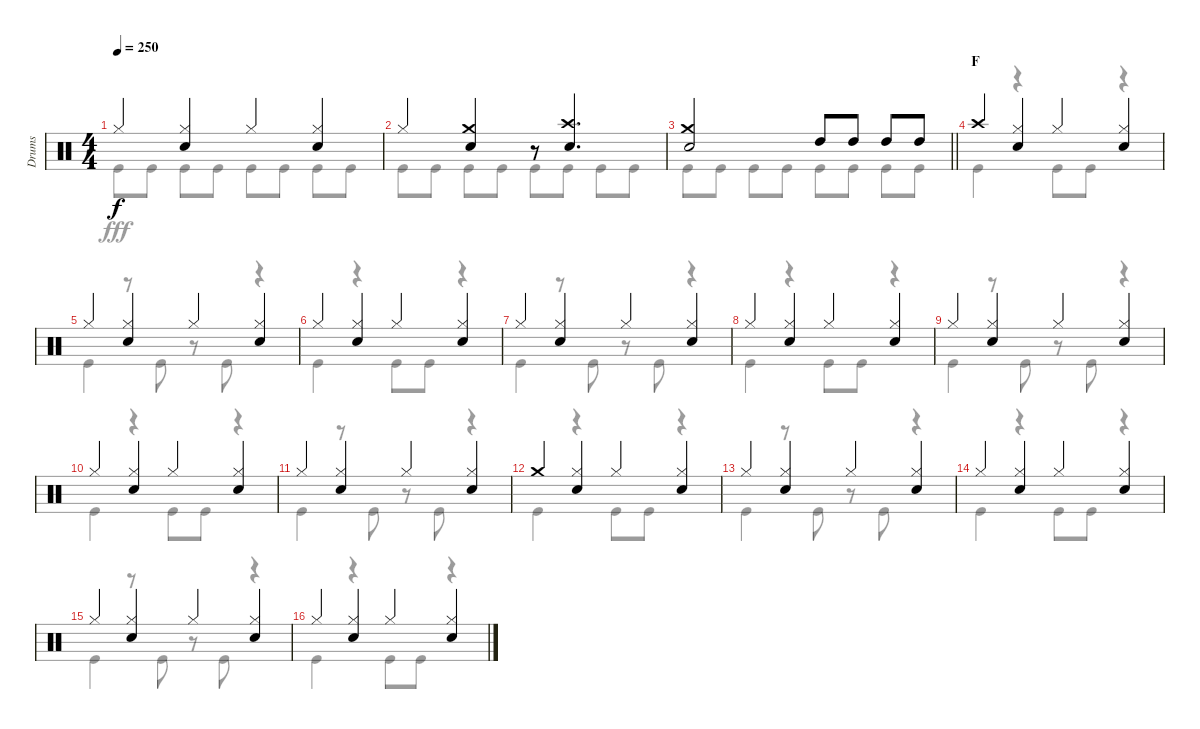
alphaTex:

\track ("Drums" "Drums") {instrument percussion}
\staff {score}
\articulation defaults
\voice
\ts (4 4)
\tempo 250
\clef neutral
\ks c "Hi-Hat (closed)".4{dy f}
("Hi-Hat (closed)" "Snare (hit) 2").4 "Hi-Hat (closed)".4 ("Hi-Hat (closed)" "Snare (hit) 2").4 |
"Hi-Hat (closed)".4 ("Crash medium (hit)" "Snare (hit) 2").4 r.8 ("Crash high (hit)" "Snare (hit) 2").4{d} |
\barLineRight lightlight
("Crash medium (hit)" "Snare (hit) 2").2 "High Tom (hit)".8 "High Tom (hit)".8 "High Tom (hit)".8 "High Tom (hit)".8 |
\section ("" "F")
"Crash high (hit)".4 ("Hi-Hat (closed)" "Snare (hit) 2").4 "Hi-Hat (closed)".4 ("Hi-Hat (closed)" "Snare (hit) 2").4 |
"Hi-Hat (closed)".4 ("Hi-Hat (closed)" "Snare (hit) 2").4 "Hi-Hat (closed)".4 ("Hi-Hat (closed)" "Snare (hit) 2").4 |
"Hi-Hat (closed)".4 ("Hi-Hat (closed)" "Snare (hit) 2").4 "Hi-Hat (closed)".4 ("Hi-Hat (closed)" "Snare (hit) 2").4 |
"Hi-Hat (closed)".4 ("Hi-Hat (closed)" "Snare (hit) 2").4 "Hi-Hat (closed)".4 ("Hi-Hat (closed)" "Snare (hit) 2").4 |
"Hi-Hat (closed)".4 ("Hi-Hat (closed)" "Snare (hit) 2").4 "Hi-Hat (closed)".4 ("Hi-Hat (closed)" "Snare (hit) 2").4 |
"Hi-Hat (closed)".4 ("Hi-Hat (closed)" "Snare (hit) 2").4 "Hi-Hat (closed)".4 ("Hi-Hat (closed)" "Snare (hit) 2").4 |
"Hi-Hat (closed)".4 ("Hi-Hat (closed)" "Snare (hit) 2").4 "Hi-Hat (closed)".4 ("Hi-Hat (closed)" "Snare (hit) 2").4 |
"Hi-Hat (closed)".4 ("Hi-Hat (closed)" "Snare (hit) 2").4 "Hi-Hat (closed)".4 ("Hi-Hat (closed)" "Snare (hit) 2").4 |
"Crash medium (hit)".4 ("Hi-Hat (closed)" "Snare (hit) 2").4 "Hi-Hat (closed)".4 ("Hi-Hat (closed)" "Snare (hit) 2").4 |
"Hi-Hat (closed)".4 ("Hi-Hat (closed)" "Snare (hit) 2").4 "Hi-Hat (closed)".4 ("Hi-Hat (closed)" "Snare (hit) 2").4 |
"Hi-Hat (closed)".4 ("Hi-Hat (closed)" "Snare (hit) 2").4 "Hi-Hat (closed)".4 ("Hi-Hat (closed)" "Snare (hit) 2").4 |
"Hi-Hat (closed)".4 ("Hi-Hat (closed)" "Snare (hit) 2").4 "Hi-Hat (closed)".4 ("Hi-Hat (closed)" "Snare (hit) 2").4 |
"Hi-Hat (closed)".4 ("Hi-Hat (closed)" "Snare (hit) 2").4 "Hi-Hat (closed)".4 ("Hi-Hat (closed)" "Snare (hit) 2").4
\voice
\clef neutral
\ottava regular
\simile none
\ks c "Kick (hit)".8{dy fff} "Kick (hit)".8 "Kick (hit)".8 "Kick (hit)".8 "Kick (hit)".8 "Kick (hit)".8 "Kick (hit)".8 "Kick (hit)".8
|
"Kick (hit)".8 "Kick (hit)".8 "Kick (hit)".8 "Kick (hit)".8 "Kick (hit)".8 "Kick (hit)".8 "Kick (hit)".8 "Kick (hit)".8 |
\barLineRight lightlight "Kick (hit)".8 "Kick (hit)".8 "Kick (hit)".8 "Kick (hit)".8 "Kick (hit)".8 "Kick (hit)".8 "Kick (hit)".8 "Kick (hit)".8
|
"Kick (hit)".4 r.4 "Kick (hit)".8 "Kick (hit)".8 r.4 |
"Kick (hit)".4 r.8 "Kick (hit)".8 r.8 "Kick (hit)".8 r.4 |
"Kick (hit)".4 r.4 "Kick (hit)".8 "Kick (hit)".8 r.4 |
"Kick (hit)".4 r.8 "Kick (hit)".8 r.8 "Kick (hit)".8 r.4 |
"Kick (hit)".4 r.4 "Kick (hit)".8 "Kick (hit)".8 r.4 |
"Kick (hit)".4 r.8 "Kick (hit)".8 r.8 "Kick (hit)".8 r.4 |
"Kick (hit)".4 r.4 "Kick (hit)".8 "Kick (hit)".8 r.4 |
"Kick (hit)".4 r.8 "Kick (hit)".8 r.8 "Kick (hit)".8 r.4 |
"Kick (hit)".4 r.4 "Kick (hit)".8 "Kick (hit)".8 r.4 |
"Kick (hit)".4 r.8 "Kick (hit)".8 r.8 "Kick (hit)".8 r.4 |
"Kick (hit)".4 r.4 "Kick (hit)".8 "Kick (hit)".8 r.4 |
"Kick (hit)".4 r.8 "Kick (hit)".8 r.8 "Kick (hit)".8 r.4 |
"Kick (hit)".4 r.4 "Kick (hit)".8 "Kick (hit)".8 r.4
